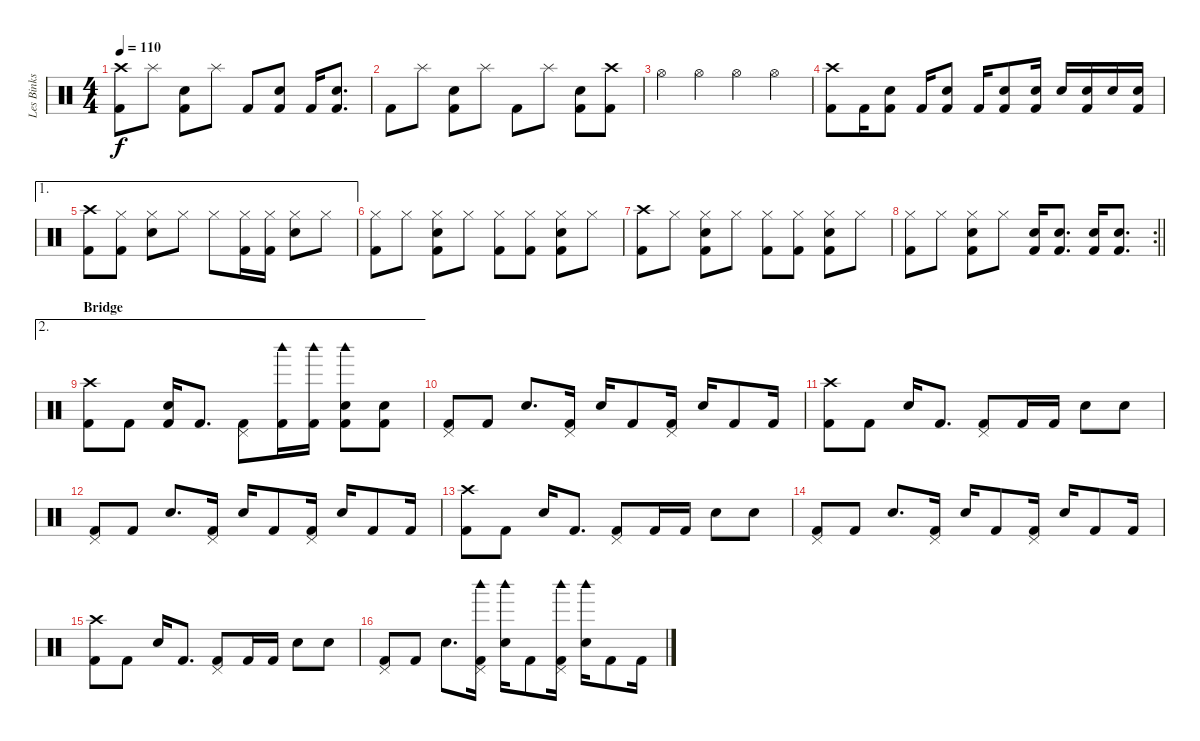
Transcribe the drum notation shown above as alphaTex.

\track ("Les Binks" "Les Binks") {instrument percussion}
\staff {score}
\articulation defaults
\ts (4 4)
\tempo 110
\clef neutral
\ks c
("Crash high (hit)" "Kick (hit) 2").8{dy f} "Splash (hit)".8 ("Snare (hit) 2" "Kick (hit) 2").8 "Splash (hit)".8 "Kick (hit) 2".8 ("Snare (hit) 2" "Kick (hit) 2").8 "Kick (hit) 2".16 ("Snare (hit) 2" "Kick (hit) 2").8{d} |
"Kick (hit) 2".8 "Splash (hit)".8 ("Snare (hit) 2" "Kick (hit) 2").8 "Splash (hit)".8 "Kick (hit) 2".8 "Splash (hit)".8 ("Snare (hit) 2" "Kick (hit) 2").8 ("Crash high (hit)" "Kick (hit) 2").8 |
"Hi-Hat (open)".4 "Hi-Hat (open)".4 "Hi-Hat (open)".4 "Hi-Hat (open)".4 |
("Crash high (hit)" "Kick (hit) 2").8 "Kick (hit) 2".16 ("Snare (hit) 2" "Kick (hit) 2").8 "Kick (hit) 2".16 ("Snare (hit) 2" "Kick (hit) 2").8 "Kick (hit) 2".16 ("Snare (hit) 2" "Kick (hit) 2").8 ("Snare (hit) 2" "Kick (hit) 2").16 "Snare (hit) 2".16 ("Snare (hit) 2" "Kick (hit) 2").16 "Snare (hit) 2".16 ("Snare (hit) 2" "Kick (hit) 2").16 |
\ae 1
("Crash high (hit)" "Kick (hit) 2").8 ("Hi-Hat (closed)" "Kick (hit) 2").8 ("Hi-Hat (closed)" "Snare (hit) 2").8 "Hi-Hat (closed)".8 "Hi-Hat (closed)".8 ("Hi-Hat (closed)" "Kick (hit) 2").16 ("Hi-Hat (closed)" "Kick (hit) 2").16 ("Hi-Hat (closed)" "Snare (hit) 2").8 "Hi-Hat (closed)".8 |
("Hi-Hat (closed)" "Kick (hit) 2").8 "Hi-Hat (closed)".8 ("Hi-Hat (closed)" "Snare (hit) 2" "Kick (hit) 2").8 "Hi-Hat (closed)".8 ("Hi-Hat (closed)" "Kick (hit) 2").8 ("Hi-Hat (closed)" "Kick (hit) 2").8 ("Hi-Hat (closed)" "Snare (hit) 2" "Kick (hit) 2").8 "Hi-Hat (closed)".8 |
("Crash high (hit)" "Kick (hit) 2").8 "Hi-Hat (closed)".8 ("Hi-Hat (closed)" "Snare (hit) 2" "Kick (hit) 2").8 "Hi-Hat (closed)".8 ("Hi-Hat (closed)" "Kick (hit) 2").8 ("Hi-Hat (closed)" "Kick (hit) 2").8 ("Hi-Hat (closed)" "Snare (hit) 2" "Kick (hit) 2").8 "Hi-Hat (closed)".8 |
\rc 2
\barLineRight lightlight
("Hi-Hat (closed)" "Kick (hit) 2").8 "Hi-Hat (closed)".8 ("Hi-Hat (closed)" "Snare (hit) 2" "Kick (hit) 2").8 "Hi-Hat (closed)".8 ("Snare (hit) 2" "Kick (hit) 2").16 ("Snare (hit) 2" "Kick (hit) 2").8{d} ("Snare (hit) 2" "Kick (hit) 2").16 ("Snare (hit) 2" "Kick (hit) 2").8{d} |
\ae 2
\section ("" "Bridge")
("Crash high (hit)" "Kick (hit) 2").8 "Kick (hit) 2".8 ("Snare (hit) 2" "Kick (hit) 2").16 "Kick (hit) 2".8{d} ("Pedal Hi-Hat (hit)" "Kick (hit) 2").8 ("Woodblock high (hit)" "Kick (hit) 2").16 ("Woodblock high (hit)" "Kick (hit) 2").16 ("Woodblock high (hit)" "Snare (hit) 2" "Kick (hit) 2").8 ("Snare (hit) 2" "Kick (hit) 2").8 |
("Pedal Hi-Hat (hit)" "Kick (hit) 2").8 "Kick (hit) 2".8 "Electric Snare (hit)".8{d} ("Pedal Hi-Hat (hit)" "Kick (hit) 2").16 "Electric Snare (hit)".16 "Kick (hit) 2".8 ("Pedal Hi-Hat (hit)" "Kick (hit) 2").16 "Electric Snare (hit)".16 "Kick (hit) 2".8 "Kick (hit) 2".16 |
("Crash high (hit)" "Kick (hit) 2").8 "Kick (hit) 2".8 "Electric Snare (hit)".16 "Kick (hit) 2".8{d} ("Pedal Hi-Hat (hit)" "Kick (hit) 2").8 "Kick (hit) 2".16 "Kick (hit) 2".16 "Electric Snare (hit)".8 "Electric Snare (hit)".8 |
("Pedal Hi-Hat (hit)" "Kick (hit) 2").8 "Kick (hit) 2".8 "Electric Snare (hit)".8{d} ("Pedal Hi-Hat (hit)" "Kick (hit) 2").16 "Electric Snare (hit)".16 "Kick (hit) 2".8 ("Pedal Hi-Hat (hit)" "Kick (hit) 2").16 "Electric Snare (hit)".16 "Kick (hit) 2".8 "Kick (hit) 2".16 |
("Crash high (hit)" "Kick (hit) 2").8 "Kick (hit) 2".8 "Electric Snare (hit)".16 "Kick (hit) 2".8{d} ("Pedal Hi-Hat (hit)" "Kick (hit) 2").8 "Kick (hit) 2".16 "Kick (hit) 2".16 "Electric Snare (hit)".8 "Electric Snare (hit)".8 |
("Pedal Hi-Hat (hit)" "Kick (hit) 2").8 "Kick (hit) 2".8 "Electric Snare (hit)".8{d} ("Pedal Hi-Hat (hit)" "Kick (hit) 2").16 "Electric Snare (hit)".16 "Kick (hit) 2".8 ("Pedal Hi-Hat (hit)" "Kick (hit) 2").16 "Electric Snare (hit)".16 "Kick (hit) 2".8 "Kick (hit) 2".16 |
("Crash high (hit)" "Kick (hit) 2").8 "Kick (hit) 2".8 "Electric Snare (hit)".16 "Kick (hit) 2".8{d} ("Pedal Hi-Hat (hit)" "Kick (hit) 2").8 "Kick (hit) 2".16 "Kick (hit) 2".16 "Electric Snare (hit)".8 "Electric Snare (hit)".8 |
("Pedal Hi-Hat (hit)" "Kick (hit) 2").8 "Kick (hit) 2".8 "Electric Snare (hit)".8{d} ("Woodblock high (hit)" "Pedal Hi-Hat (hit)" "Kick (hit) 2").16 ("Woodblock high (hit)" "Snare (hit) 2").16 "Kick (hit) 2".8 ("Woodblock high (hit)" "Pedal Hi-Hat (hit)" "Kick (hit) 2").16 ("Woodblock high (hit)" "Snare (hit) 2").16 "Kick (hit) 2".8 "Kick (hit) 2".16
